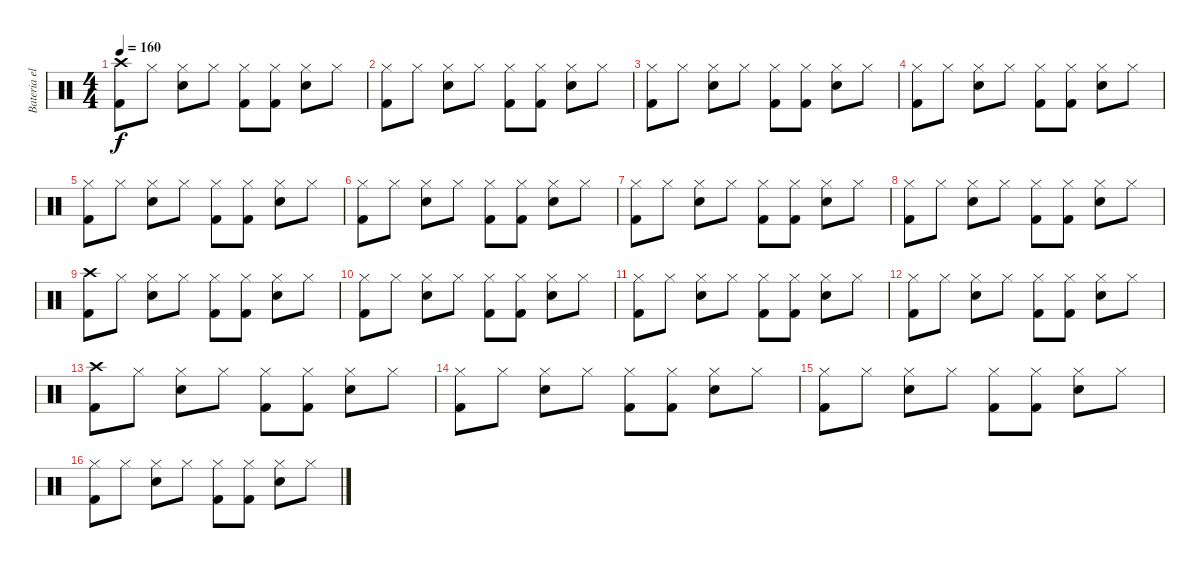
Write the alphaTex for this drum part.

\track ("Bateria electrica" "Bateria el") {instrument percussion}
\staff {score}
\articulation defaults
\ts (4 4)
\tempo 160
\clef neutral
\ks c
("Crash high (hit)" "Kick (hit) 2").8{dy f} "Hi-Hat (closed)".8 ("Hi-Hat (closed)" "Snare (hit) 2").8 "Hi-Hat (closed)".8 ("Hi-Hat (closed)" "Kick (hit) 2").8 ("Hi-Hat (closed)" "Kick (hit) 2").8 ("Hi-Hat (closed)" "Snare (hit) 2").8 "Hi-Hat (closed)".8 |
("Hi-Hat (closed)" "Kick (hit) 2").8 "Hi-Hat (closed)".8 ("Hi-Hat (closed)" "Snare (hit) 2").8 "Hi-Hat (closed)".8 ("Hi-Hat (closed)" "Kick (hit) 2").8 ("Hi-Hat (closed)" "Kick (hit) 2").8 ("Hi-Hat (closed)" "Snare (hit) 2").8 "Hi-Hat (closed)".8 |
("Hi-Hat (closed)" "Kick (hit) 2").8 "Hi-Hat (closed)".8 ("Hi-Hat (closed)" "Snare (hit) 2").8 "Hi-Hat (closed)".8 ("Hi-Hat (closed)" "Kick (hit) 2").8 ("Hi-Hat (closed)" "Kick (hit) 2").8 ("Hi-Hat (closed)" "Snare (hit) 2").8 "Hi-Hat (closed)".8 |
("Hi-Hat (closed)" "Kick (hit) 2").8 "Hi-Hat (closed)".8 ("Hi-Hat (closed)" "Snare (hit) 2").8 "Hi-Hat (closed)".8 ("Hi-Hat (closed)" "Kick (hit) 2").8 ("Hi-Hat (closed)" "Kick (hit) 2").8 ("Hi-Hat (closed)" "Snare (hit) 2").8 "Hi-Hat (closed)".8 |
("Hi-Hat (closed)" "Kick (hit) 2").8 "Hi-Hat (closed)".8 ("Hi-Hat (closed)" "Snare (hit) 2").8 "Hi-Hat (closed)".8 ("Hi-Hat (closed)" "Kick (hit) 2").8 ("Hi-Hat (closed)" "Kick (hit) 2").8 ("Hi-Hat (closed)" "Snare (hit) 2").8 "Hi-Hat (closed)".8 |
("Hi-Hat (closed)" "Kick (hit) 2").8 "Hi-Hat (closed)".8 ("Hi-Hat (closed)" "Snare (hit) 2").8 "Hi-Hat (closed)".8 ("Hi-Hat (closed)" "Kick (hit) 2").8 ("Hi-Hat (closed)" "Kick (hit) 2").8 ("Hi-Hat (closed)" "Snare (hit) 2").8 "Hi-Hat (closed)".8 |
("Hi-Hat (closed)" "Kick (hit) 2").8 "Hi-Hat (closed)".8 ("Hi-Hat (closed)" "Snare (hit) 2").8 "Hi-Hat (closed)".8 ("Hi-Hat (closed)" "Kick (hit) 2").8 ("Hi-Hat (closed)" "Kick (hit) 2").8 ("Hi-Hat (closed)" "Snare (hit) 2").8 "Hi-Hat (closed)".8 |
("Hi-Hat (closed)" "Kick (hit) 2").8 "Hi-Hat (closed)".8 ("Hi-Hat (closed)" "Snare (hit) 2").8 "Hi-Hat (closed)".8 ("Hi-Hat (closed)" "Kick (hit) 2").8 ("Hi-Hat (closed)" "Kick (hit) 2").8 ("Hi-Hat (closed)" "Snare (hit) 2").8 "Hi-Hat (closed)".8 |
("Crash high (hit)" "Kick (hit) 2").8 "Hi-Hat (closed)".8 ("Hi-Hat (closed)" "Snare (hit) 2").8 "Hi-Hat (closed)".8 ("Hi-Hat (closed)" "Kick (hit) 2").8 ("Hi-Hat (closed)" "Kick (hit) 2").8 ("Hi-Hat (closed)" "Snare (hit) 2").8 "Hi-Hat (closed)".8 |
("Hi-Hat (closed)" "Kick (hit) 2").8 "Hi-Hat (closed)".8 ("Hi-Hat (closed)" "Snare (hit) 2").8 "Hi-Hat (closed)".8 ("Hi-Hat (closed)" "Kick (hit) 2").8 ("Hi-Hat (closed)" "Kick (hit) 2").8 ("Hi-Hat (closed)" "Snare (hit) 2").8 "Hi-Hat (closed)".8 |
("Hi-Hat (closed)" "Kick (hit) 2").8 "Hi-Hat (closed)".8 ("Hi-Hat (closed)" "Snare (hit) 2").8 "Hi-Hat (closed)".8 ("Hi-Hat (closed)" "Kick (hit) 2").8 ("Hi-Hat (closed)" "Kick (hit) 2").8 ("Hi-Hat (closed)" "Snare (hit) 2").8 "Hi-Hat (closed)".8 |
("Hi-Hat (closed)" "Kick (hit) 2").8 "Hi-Hat (closed)".8 ("Hi-Hat (closed)" "Snare (hit) 2").8 "Hi-Hat (closed)".8 ("Hi-Hat (closed)" "Kick (hit) 2").8 ("Hi-Hat (closed)" "Kick (hit) 2").8 ("Hi-Hat (closed)" "Snare (hit) 2").8 "Hi-Hat (closed)".8 |
("Crash high (hit)" "Kick (hit) 2").8 "Hi-Hat (closed)".8 ("Hi-Hat (closed)" "Snare (hit) 2").8 "Hi-Hat (closed)".8 ("Hi-Hat (closed)" "Kick (hit) 2").8 ("Hi-Hat (closed)" "Kick (hit) 2").8 ("Hi-Hat (closed)" "Snare (hit) 2").8 "Hi-Hat (closed)".8 |
("Hi-Hat (closed)" "Kick (hit) 2").8 "Hi-Hat (closed)".8 ("Hi-Hat (closed)" "Snare (hit) 2").8 "Hi-Hat (closed)".8 ("Hi-Hat (closed)" "Kick (hit) 2").8 ("Hi-Hat (closed)" "Kick (hit) 2").8 ("Hi-Hat (closed)" "Snare (hit) 2").8 "Hi-Hat (closed)".8 |
("Hi-Hat (closed)" "Kick (hit) 2").8 "Hi-Hat (closed)".8 ("Hi-Hat (closed)" "Snare (hit) 2").8 "Hi-Hat (closed)".8 ("Hi-Hat (closed)" "Kick (hit) 2").8 ("Hi-Hat (closed)" "Kick (hit) 2").8 ("Hi-Hat (closed)" "Snare (hit) 2").8 "Hi-Hat (closed)".8 |
("Hi-Hat (closed)" "Kick (hit) 2").8 "Hi-Hat (closed)".8 ("Hi-Hat (closed)" "Snare (hit) 2").8 "Hi-Hat (closed)".8 ("Hi-Hat (closed)" "Kick (hit) 2").8 ("Hi-Hat (closed)" "Kick (hit) 2").8 ("Hi-Hat (closed)" "Snare (hit) 2").8 "Hi-Hat (closed)".8
